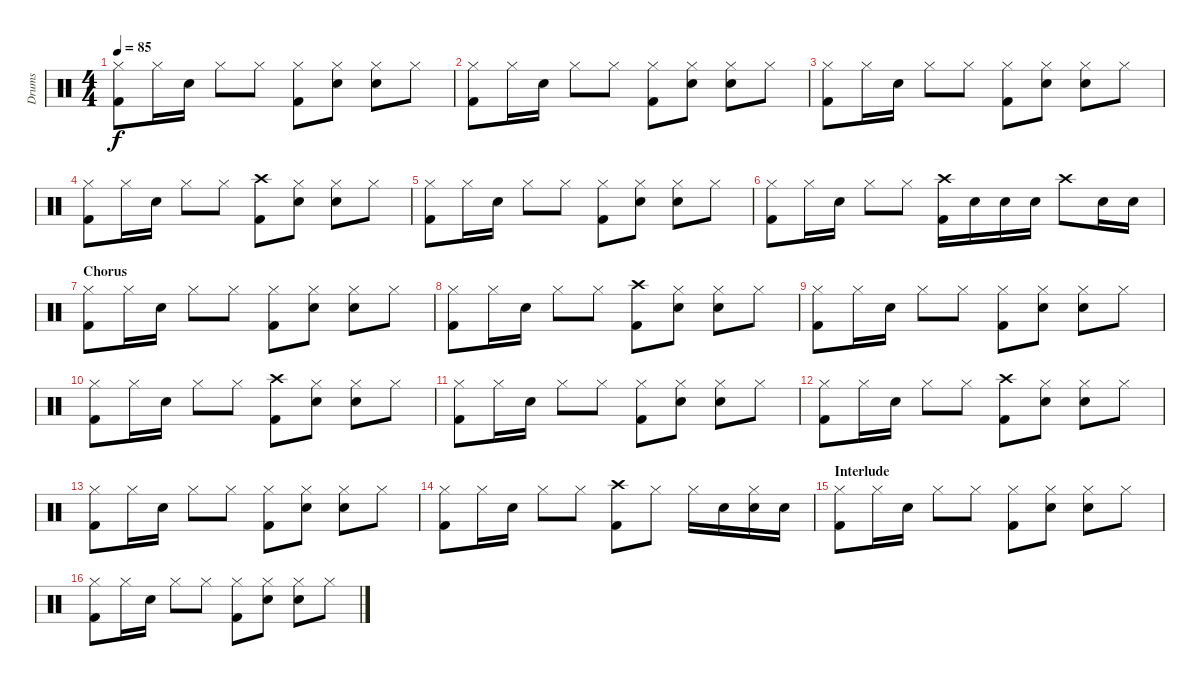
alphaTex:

\track ("Drums" "Drums") {instrument percussion}
\staff {score}
\articulation defaults
\ts (4 4)
\tempo 85
\clef neutral
\ks c
("Hi-Hat (closed)" "Kick (hit) 2").8{dy f} "Hi-Hat (closed)".16 "Snare (hit) 2".16 "Hi-Hat (closed)".8 "Hi-Hat (closed)".8 ("Hi-Hat (closed)" "Kick (hit) 2").8 ("Hi-Hat (closed)" "Snare (hit) 2").8 ("Hi-Hat (closed)" "Snare (hit) 2").8 "Hi-Hat (closed)".8 |
("Hi-Hat (closed)" "Kick (hit) 2").8 "Hi-Hat (closed)".16 "Snare (hit) 2".16 "Hi-Hat (closed)".8 "Hi-Hat (closed)".8 ("Hi-Hat (closed)" "Kick (hit) 2").8 ("Hi-Hat (closed)" "Snare (hit) 2").8 ("Hi-Hat (closed)" "Snare (hit) 2").8 "Hi-Hat (closed)".8 |
("Hi-Hat (closed)" "Kick (hit) 2").8 "Hi-Hat (closed)".16 "Snare (hit) 2".16 "Hi-Hat (closed)".8 "Hi-Hat (closed)".8 ("Hi-Hat (closed)" "Kick (hit) 2").8 ("Hi-Hat (closed)" "Snare (hit) 2").8 ("Hi-Hat (closed)" "Snare (hit) 2").8 "Hi-Hat (closed)".8 |
("Hi-Hat (closed)" "Kick (hit) 2").8 "Hi-Hat (closed)".16 "Snare (hit) 2".16 "Hi-Hat (closed)".8 "Hi-Hat (closed)".8 ("Crash high (hit)" "Kick (hit) 2").8 ("Hi-Hat (closed)" "Snare (hit) 2").8 ("Hi-Hat (closed)" "Snare (hit) 2").8 "Hi-Hat (closed)".8 |
("Hi-Hat (closed)" "Kick (hit) 2").8 "Hi-Hat (closed)".16 "Snare (hit) 2".16 "Hi-Hat (closed)".8 "Hi-Hat (closed)".8 ("Hi-Hat (closed)" "Kick (hit) 2").8 ("Hi-Hat (closed)" "Snare (hit) 2").8 ("Hi-Hat (closed)" "Snare (hit) 2").8 "Hi-Hat (closed)".8 |
("Hi-Hat (closed)" "Kick (hit) 2").8 "Hi-Hat (closed)".16 "Snare (hit) 2".16 "Hi-Hat (closed)".8 "Hi-Hat (closed)".8 ("Crash high (hit)" "Kick (hit) 2").16 "Snare (hit) 2".16 "Snare (hit) 2".16 "Snare (hit) 2".16 "Crash high (hit)".8 "Snare (hit) 2".16 "Snare (hit) 2".16 |
\section ("" "Chorus")
("Hi-Hat (closed)" "Kick (hit) 2").8 "Hi-Hat (closed)".16 "Snare (hit) 2".16 "Hi-Hat (closed)".8 "Hi-Hat (closed)".8 ("Hi-Hat (closed)" "Kick (hit) 2").8 ("Hi-Hat (closed)" "Snare (hit) 2").8 ("Hi-Hat (closed)" "Snare (hit) 2").8 "Hi-Hat (closed)".8 |
("Hi-Hat (closed)" "Kick (hit) 2").8 "Hi-Hat (closed)".16 "Snare (hit) 2".16 "Hi-Hat (closed)".8 "Hi-Hat (closed)".8 ("Crash high (hit)" "Kick (hit) 2").8 ("Hi-Hat (closed)" "Snare (hit) 2").8 ("Hi-Hat (closed)" "Snare (hit) 2").8 "Hi-Hat (closed)".8 |
("Hi-Hat (closed)" "Kick (hit) 2").8 "Hi-Hat (closed)".16 "Snare (hit) 2".16 "Hi-Hat (closed)".8 "Hi-Hat (closed)".8 ("Hi-Hat (closed)" "Kick (hit) 2").8 ("Hi-Hat (closed)" "Snare (hit) 2").8 ("Hi-Hat (closed)" "Snare (hit) 2").8 "Hi-Hat (closed)".8 |
("Hi-Hat (closed)" "Kick (hit) 2").8 "Hi-Hat (closed)".16 "Snare (hit) 2".16 "Hi-Hat (closed)".8 "Hi-Hat (closed)".8 ("Crash high (hit)" "Kick (hit) 2").8 ("Hi-Hat (closed)" "Snare (hit) 2").8 ("Hi-Hat (closed)" "Snare (hit) 2").8 "Hi-Hat (closed)".8 |
("Hi-Hat (closed)" "Kick (hit) 2").8 "Hi-Hat (closed)".16 "Snare (hit) 2".16 "Hi-Hat (closed)".8 "Hi-Hat (closed)".8 ("Hi-Hat (closed)" "Kick (hit) 2").8 ("Hi-Hat (closed)" "Snare (hit) 2").8 ("Hi-Hat (closed)" "Snare (hit) 2").8 "Hi-Hat (closed)".8 |
("Hi-Hat (closed)" "Kick (hit) 2").8 "Hi-Hat (closed)".16 "Snare (hit) 2".16 "Hi-Hat (closed)".8 "Hi-Hat (closed)".8 ("Crash high (hit)" "Kick (hit) 2").8 ("Hi-Hat (closed)" "Snare (hit) 2").8 ("Hi-Hat (closed)" "Snare (hit) 2").8 "Hi-Hat (closed)".8 |
("Hi-Hat (closed)" "Kick (hit) 2").8 "Hi-Hat (closed)".16 "Snare (hit) 2".16 "Hi-Hat (closed)".8 "Hi-Hat (closed)".8 ("Hi-Hat (closed)" "Kick (hit) 2").8 ("Hi-Hat (closed)" "Snare (hit) 2").8 ("Hi-Hat (closed)" "Snare (hit) 2").8 "Hi-Hat (closed)".8 |
("Hi-Hat (closed)" "Kick (hit) 2").8 "Hi-Hat (closed)".16 "Snare (hit) 2".16 "Hi-Hat (closed)".8 "Hi-Hat (closed)".8 ("Crash high (hit)" "Kick (hit) 2").8 "Hi-Hat (closed)".8 "Hi-Hat (closed)".16 "Snare (hit) 2".16 ("Hi-Hat (closed)" "Snare (hit) 2").16 "Snare (hit) 2".16 |
\section ("" "Interlude")
("Hi-Hat (closed)" "Kick (hit) 2").8 "Hi-Hat (closed)".16 "Snare (hit) 2".16 "Hi-Hat (closed)".8 "Hi-Hat (closed)".8 ("Hi-Hat (closed)" "Kick (hit) 2").8 ("Hi-Hat (closed)" "Snare (hit) 2").8 ("Hi-Hat (closed)" "Snare (hit) 2").8 "Hi-Hat (closed)".8 |
("Hi-Hat (closed)" "Kick (hit) 2").8 "Hi-Hat (closed)".16 "Snare (hit) 2".16 "Hi-Hat (closed)".8 "Hi-Hat (closed)".8 ("Hi-Hat (closed)" "Kick (hit) 2").8 ("Hi-Hat (closed)" "Snare (hit) 2").8 ("Hi-Hat (closed)" "Snare (hit) 2").8 "Hi-Hat (closed)".8
